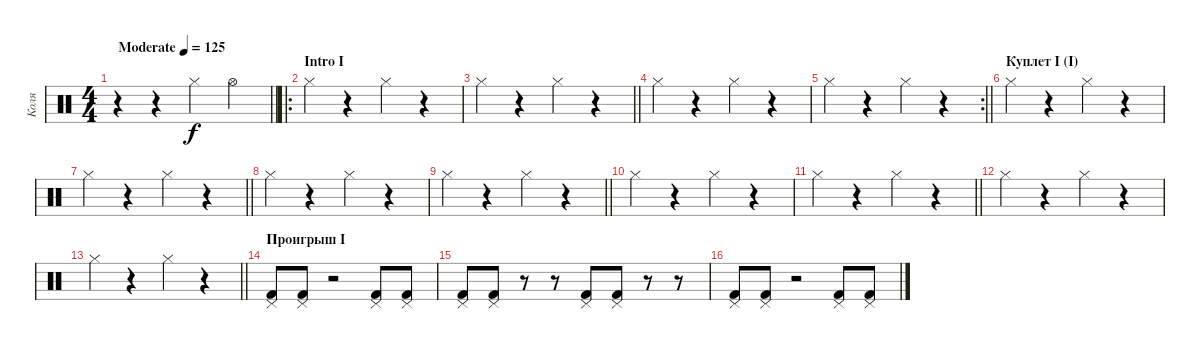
\track ("Коля" "Коля") {instrument percussion}
\staff {score}
\articulation defaults
\ts (4 4)
\tempo (125 "Moderate")
\clef neutral
\barLineRight lightlight
\ks c
r.4{dy f} r.4 "Hi-Hat (closed)".4 "Hi-Hat (open)".4 |
\ro
\section ("" "Intro I")
"Hi-Hat (closed)".4 r.4 "Hi-Hat (closed)".4 r.4 |
\barLineRight lightlight "Hi-Hat (closed)".4
r.4 "Hi-Hat (closed)".4 r.4 |
"Hi-Hat (closed)".4 r.4 "Hi-Hat (closed)".4 r.4 |
\rc 2
\barLineRight lightlight "Hi-Hat (closed)".4
r.4 "Hi-Hat (closed)".4 r.4 |
\section ("" "Куплет I (I)")
"Hi-Hat (closed)".4 r.4 "Hi-Hat (closed)".4 r.4 |
\barLineRight lightlight "Hi-Hat (closed)".4
r.4 "Hi-Hat (closed)".4 r.4 |
"Hi-Hat (closed)".4 r.4 "Hi-Hat (closed)".4 r.4 |
\barLineRight lightlight "Hi-Hat (closed)".4
r.4 "Hi-Hat (closed)".4 r.4 |
"Hi-Hat (closed)".4 r.4 "Hi-Hat (closed)".4 r.4 |
\barLineRight lightlight "Hi-Hat (closed)".4
r.4 "Hi-Hat (closed)".4 r.4 |
"Hi-Hat (closed)".4 r.4 "Hi-Hat (closed)".4 r.4 |
\barLineRight lightlight "Hi-Hat (closed)".4
r.4 "Hi-Hat (closed)".4 r.4 |
\section ("" "Проигрыш I")
("Pedal Hi-Hat (hit)" "Kick (hit) 2").8 ("Pedal Hi-Hat (hit)" "Kick (hit) 2").8 r.2 ("Pedal Hi-Hat (hit)" "Kick (hit) 2").8 ("Pedal Hi-Hat (hit)" "Kick (hit) 2").8 |
("Pedal Hi-Hat (hit)" "Kick (hit) 2").8 ("Pedal Hi-Hat (hit)" "Kick (hit) 2").8 r.8 r.8 ("Pedal Hi-Hat (hit)" "Kick (hit) 2").8 ("Pedal Hi-Hat (hit)" "Kick (hit) 2").8 r.8 r.8 |
("Pedal Hi-Hat (hit)" "Kick (hit) 2").8 ("Pedal Hi-Hat (hit)" "Kick (hit) 2").8 r.2 ("Pedal Hi-Hat (hit)" "Kick (hit) 2").8 ("Pedal Hi-Hat (hit)" "Kick (hit) 2").8
